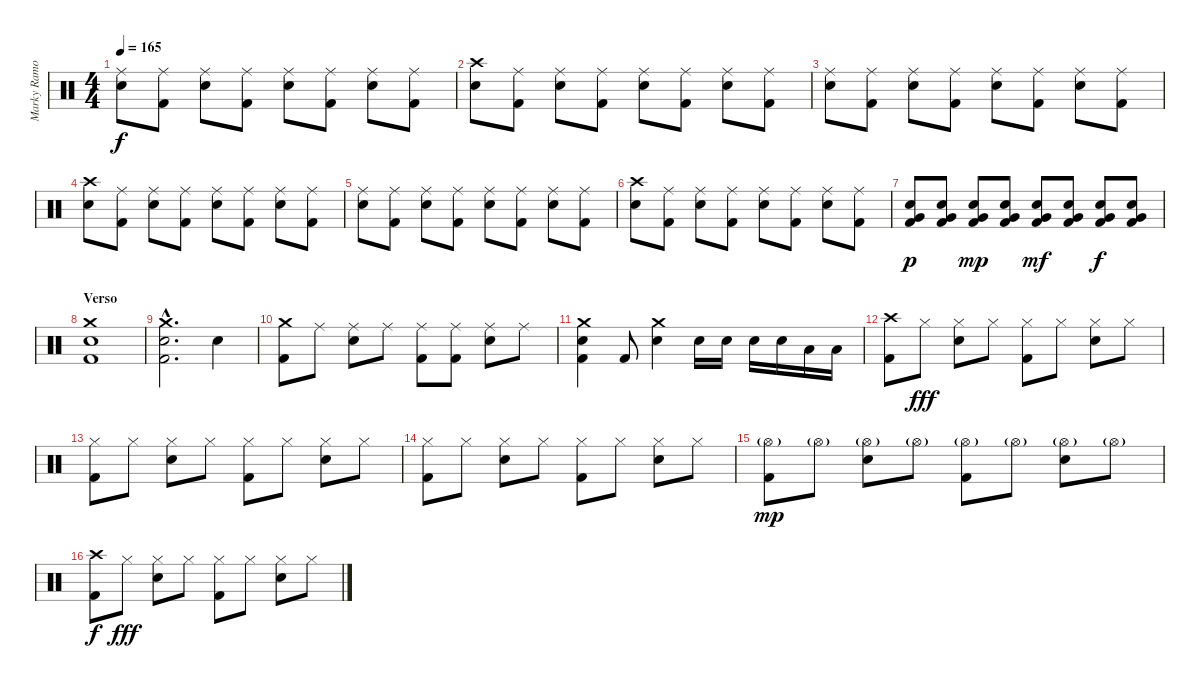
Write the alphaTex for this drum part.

\track ("Marky Ramone, o Próprio" "Marky Ramo") {instrument percussion}
\staff {score}
\articulation defaults
\ts (4 4)
\tempo 165
\clef neutral
\ks c
("Ride (middle)" "Electric Snare (hit)").8{dy f} ("Ride (middle)" "Kick (hit) 2").8 ("Ride (middle)" "Electric Snare (hit)").8 ("Ride (middle)" "Kick (hit) 2").8 ("Ride (middle)" "Electric Snare (hit)").8 ("Ride (middle)" "Kick (hit) 2").8 ("Ride (middle)" "Electric Snare (hit)").8 ("Ride (middle)" "Kick (hit) 2").8 |
("Crash high (hit)" "Electric Snare (hit)").8 ("Ride (middle)" "Kick (hit) 2").8 ("Ride (middle)" "Electric Snare (hit)").8 ("Ride (middle)" "Kick (hit) 2").8 ("Ride (middle)" "Electric Snare (hit)").8 ("Ride (middle)" "Kick (hit) 2").8 ("Ride (middle)" "Electric Snare (hit)").8 ("Ride (middle)" "Kick (hit) 2").8 |
("Ride (middle)" "Electric Snare (hit)").8 ("Ride (middle)" "Kick (hit) 2").8 ("Ride (middle)" "Electric Snare (hit)").8 ("Ride (middle)" "Kick (hit) 2").8 ("Ride (middle)" "Electric Snare (hit)").8 ("Ride (middle)" "Kick (hit) 2").8 ("Ride (middle)" "Electric Snare (hit)").8 ("Ride (middle)" "Kick (hit) 2").8 |
("Crash high (hit)" "Electric Snare (hit)").8 ("Ride (middle)" "Kick (hit) 2").8 ("Ride (middle)" "Electric Snare (hit)").8 ("Ride (middle)" "Kick (hit) 2").8 ("Ride (middle)" "Electric Snare (hit)").8 ("Ride (middle)" "Kick (hit) 2").8 ("Ride (middle)" "Electric Snare (hit)").8 ("Ride (middle)" "Kick (hit) 2").8 |
("Ride (middle)" "Electric Snare (hit)").8 ("Ride (middle)" "Kick (hit) 2").8 ("Ride (middle)" "Electric Snare (hit)").8 ("Ride (middle)" "Kick (hit) 2").8 ("Ride (middle)" "Electric Snare (hit)").8 ("Ride (middle)" "Kick (hit) 2").8 ("Ride (middle)" "Electric Snare (hit)").8 ("Ride (middle)" "Kick (hit) 2").8 |
("Crash high (hit)" "Electric Snare (hit)").8 ("Ride (middle)" "Kick (hit) 2").8 ("Ride (middle)" "Electric Snare (hit)").8 ("Ride (middle)" "Kick (hit) 2").8 ("Ride (middle)" "Electric Snare (hit)").8 ("Ride (middle)" "Kick (hit) 2").8 ("Ride (middle)" "Electric Snare (hit)").8 ("Ride (middle)" "Kick (hit) 2").8 |
("Electric Snare (hit)" "Very Low Tom (hit)" "Kick (hit) 2").8{dy p} ("Electric Snare (hit)" "Very Low Tom (hit)" "Kick (hit) 2").8 ("Electric Snare (hit)" "Very Low Tom (hit)" "Kick (hit) 2").8{dy mp} ("Electric Snare (hit)" "Very Low Tom (hit)" "Kick (hit) 2").8 ("Electric Snare (hit)" "Very Low Tom (hit)" "Kick (hit) 2").8{dy mf} ("Electric Snare (hit)" "Very Low Tom (hit)" "Kick (hit) 2").8 ("Electric Snare (hit)" "Very Low Tom (hit)" "Kick (hit) 2").8{dy f} ("Electric Snare (hit)" "Very Low Tom (hit)" "Kick (hit) 2").8 |
\section ("" "Verso")
("Crash medium (hit)" "Electric Snare (hit)" "Kick (hit) 2").1 |
("Crash medium (hit)"{hac} "Electric Snare (hit)"{hac} "Kick (hit) 2"{hac}).2{d} "Electric Snare (hit)".4 |
("Crash medium (hit)" "Kick (hit) 2").8 "Ride (middle)".8 ("Ride (middle)" "Electric Snare (hit)").8 "Ride (middle)".8 ("Ride (middle)" "Kick (hit) 2").8 ("Ride (middle)" "Kick (hit) 2").8 ("Ride (middle)" "Electric Snare (hit)").8 "Ride (middle)".8 |
("Crash medium (hit)" "Electric Snare (hit)" "Kick (hit) 2").4 "Kick (hit) 2".8 ("Crash medium (hit)" "Electric Snare (hit)").4 "Electric Snare (hit)".16 "Electric Snare (hit)".16 "Electric Snare (hit)".16 "Electric Snare (hit)".16 "Low Tom (hit)".16 "Low Tom (hit)".16 |
("Crash high (hit)" "Kick (hit) 2").8 "Hi-Hat (closed)".8{dy fff} ("Hi-Hat (closed)" "Electric Snare (hit)").8 "Hi-Hat (closed)".8 ("Hi-Hat (closed)" "Kick (hit) 2").8 "Hi-Hat (closed)".8 ("Hi-Hat (closed)" "Electric Snare (hit)").8 "Hi-Hat (closed)".8 |
("Hi-Hat (closed)" "Kick (hit) 2").8 "Hi-Hat (closed)".8 ("Hi-Hat (closed)" "Electric Snare (hit)").8 "Hi-Hat (closed)".8 ("Hi-Hat (closed)" "Kick (hit) 2").8 "Hi-Hat (closed)".8 ("Hi-Hat (closed)" "Electric Snare (hit)").8 "Hi-Hat (closed)".8 |
("Hi-Hat (closed)" "Kick (hit) 2").8 "Hi-Hat (closed)".8 ("Hi-Hat (closed)" "Electric Snare (hit)").8 "Hi-Hat (closed)".8 ("Hi-Hat (closed)" "Kick (hit) 2").8 "Hi-Hat (closed)".8 ("Hi-Hat (closed)" "Electric Snare (hit)").8 "Hi-Hat (closed)".8 |
("Hi-Hat (open)"{g} "Kick (hit) 2").8{dy mp} "Hi-Hat (open)"{g}.8 ("Hi-Hat (open)"{g} "Electric Snare (hit)").8 "Hi-Hat (open)"{g}.8 ("Hi-Hat (open)"{g} "Kick (hit) 2").8 "Hi-Hat (open)"{g}.8 ("Hi-Hat (open)"{g} "Electric Snare (hit)").8 "Hi-Hat (open)"{g}.8 |
("Crash high (hit)" "Kick (hit) 2").8{dy f} "Hi-Hat (closed)".8{dy fff} ("Hi-Hat (closed)" "Electric Snare (hit)").8 "Hi-Hat (closed)".8 ("Hi-Hat (closed)" "Kick (hit) 2").8 "Hi-Hat (closed)".8 ("Hi-Hat (closed)" "Electric Snare (hit)").8 "Hi-Hat (closed)".8
